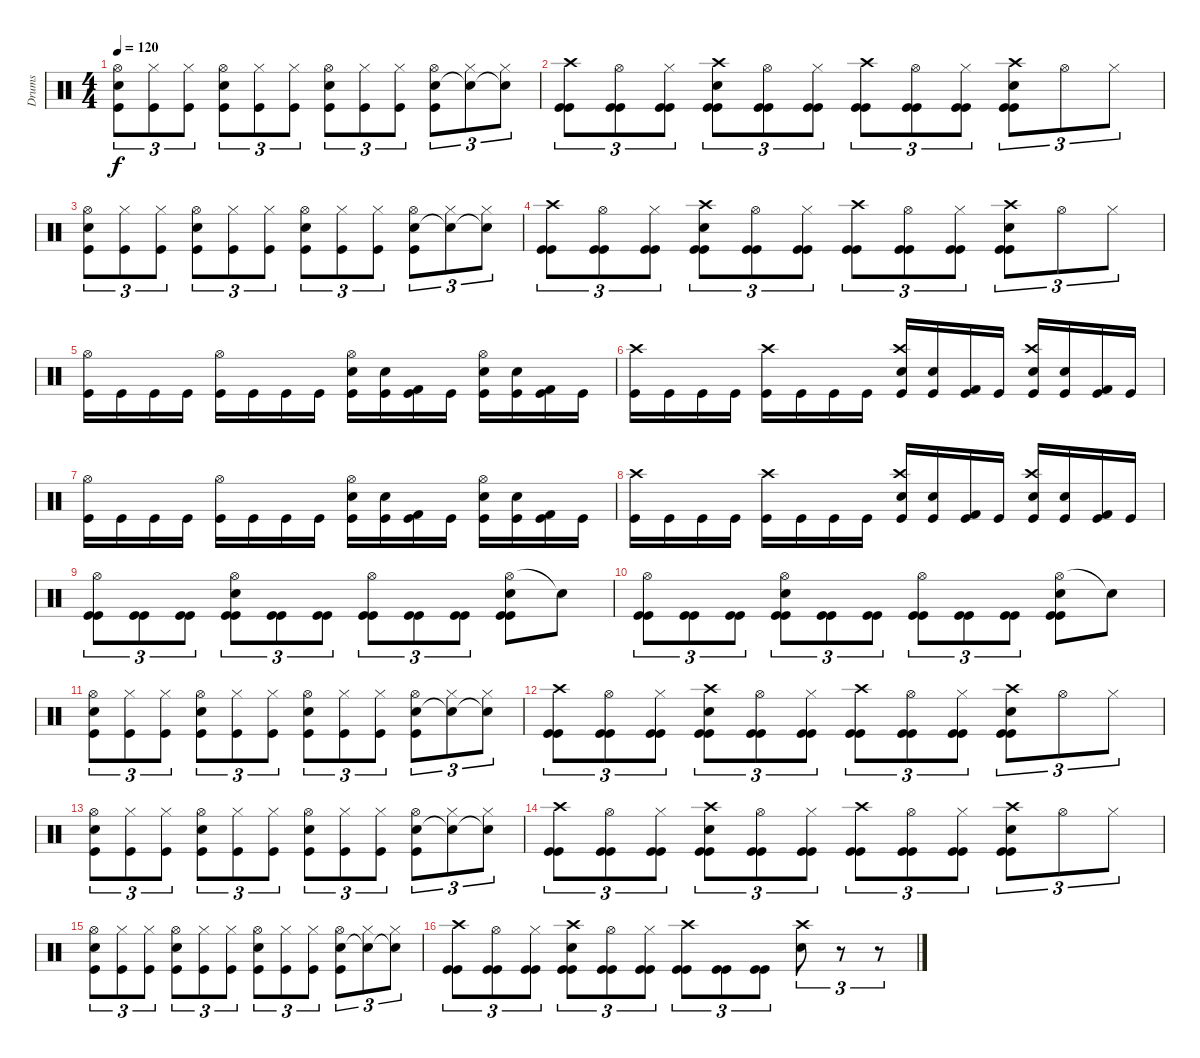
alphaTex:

\track ("Drums" "Drums") {instrument percussion}
\staff {score}
\articulation defaults
\ts (4 4)
\tempo 120
\clef neutral
\ks c
("Hi-Hat (open)" "Snare (hit) 2" "Kick (hit)").8{tu (3 2) dy f} ("Hi-Hat (closed)" "Kick (hit)").8{tu (3 2)} ("Hi-Hat (closed)" "Kick (hit)").8{tu (3 2)} ("Hi-Hat (open)" "Snare (hit) 2" "Kick (hit)").8{tu (3 2)} ("Hi-Hat (closed)" "Kick (hit)").8{tu (3 2)} ("Hi-Hat (closed)" "Kick (hit)").8{tu (3 2)} ("Hi-Hat (open)" "Snare (hit) 2" "Kick (hit)").8{tu (3 2)} ("Hi-Hat (closed)" "Kick (hit)").8{tu (3 2)} ("Hi-Hat (closed)" "Kick (hit)").8{tu (3 2)} ("Hi-Hat (open)" "Snare (hit) 2" "Kick (hit)").8{tu (3 2)} ("Hi-Hat (closed)" "Snare (hit)"{t}).8{tu (3 2)} ("Hi-Hat (closed)" "Snare (hit)"{t}).8{tu (3 2)} |
("Crash high (hit)" "Kick (hit)" "Kick (hit)").8{tu (3 2)} ("Hi-Hat (open)" "Kick (hit)" "Kick (hit)").8{tu (3 2)} ("Hi-Hat (closed)" "Kick (hit)" "Kick (hit)").8{tu (3 2)} ("Crash high (hit)" "Snare (hit) 2" "Kick (hit)" "Kick (hit)").8{tu (3 2)} ("Hi-Hat (open)" "Kick (hit)" "Kick (hit)").8{tu (3 2)} ("Hi-Hat (closed)" "Kick (hit)" "Kick (hit)").8{tu (3 2)} ("Crash high (hit)" "Kick (hit)" "Kick (hit)").8{tu (3 2)} ("Hi-Hat (open)" "Kick (hit)" "Kick (hit)").8{tu (3 2)} ("Hi-Hat (closed)" "Kick (hit)" "Kick (hit)").8{tu (3 2)} ("Crash high (hit)" "Snare (hit) 2" "Kick (hit)" "Kick (hit)").8{tu (3 2)} "Hi-Hat (open)".8{tu (3 2)} "Hi-Hat (closed)".8{tu (3 2)} |
("Hi-Hat (open)" "Snare (hit) 2" "Kick (hit)").8{tu (3 2)} ("Hi-Hat (closed)" "Kick (hit)").8{tu (3 2)} ("Hi-Hat (closed)" "Kick (hit)").8{tu (3 2)} ("Hi-Hat (open)" "Snare (hit) 2" "Kick (hit)").8{tu (3 2)} ("Hi-Hat (closed)" "Kick (hit)").8{tu (3 2)} ("Hi-Hat (closed)" "Kick (hit)").8{tu (3 2)} ("Hi-Hat (open)" "Snare (hit) 2" "Kick (hit)").8{tu (3 2)} ("Hi-Hat (closed)" "Kick (hit)").8{tu (3 2)} ("Hi-Hat (closed)" "Kick (hit)").8{tu (3 2)} ("Hi-Hat (open)" "Snare (hit) 2" "Kick (hit)").8{tu (3 2)} ("Hi-Hat (closed)" "Snare (hit)"{t}).8{tu (3 2)} ("Hi-Hat (closed)" "Snare (hit)"{t}).8{tu (3 2)} |
("Crash high (hit)" "Kick (hit)" "Kick (hit)").8{tu (3 2)} ("Hi-Hat (open)" "Kick (hit)" "Kick (hit)").8{tu (3 2)} ("Hi-Hat (closed)" "Kick (hit)" "Kick (hit)").8{tu (3 2)} ("Crash high (hit)" "Snare (hit) 2" "Kick (hit)" "Kick (hit)").8{tu (3 2)} ("Hi-Hat (open)" "Kick (hit)" "Kick (hit)").8{tu (3 2)} ("Hi-Hat (closed)" "Kick (hit)" "Kick (hit)").8{tu (3 2)} ("Crash high (hit)" "Kick (hit)" "Kick (hit)").8{tu (3 2)} ("Hi-Hat (open)" "Kick (hit)" "Kick (hit)").8{tu (3 2)} ("Hi-Hat (closed)" "Kick (hit)" "Kick (hit)").8{tu (3 2)} ("Crash high (hit)" "Snare (hit) 2" "Kick (hit)" "Kick (hit)").8{tu (3 2)} "Hi-Hat (open)".8{tu (3 2)} "Hi-Hat (closed)".8{tu (3 2)} |
("Hi-Hat (open)" "Kick (hit)").16 "Kick (hit)".16 "Kick (hit)".16 "Kick (hit)".16 ("Hi-Hat (open)" "Kick (hit)").16 "Kick (hit)".16 "Kick (hit)".16 "Kick (hit)".16 ("Hi-Hat (open)" "Electric Snare (hit)" "Kick (hit)").16 ("Snare (hit) 2" "Kick (hit)").16 ("Kick (hit) 2" "Kick (hit)").16 "Kick (hit)".16 ("Hi-Hat (open)" "Electric Snare (hit)" "Kick (hit)").16 ("Snare (hit) 2" "Kick (hit)").16 ("Kick (hit) 2" "Kick (hit)").16 "Kick (hit)".16 |
("Crash high (hit)" "Kick (hit)").16 "Kick (hit)".16 "Kick (hit)".16 "Kick (hit)".16 ("Crash high (hit)" "Kick (hit)").16 "Kick (hit)".16 "Kick (hit)".16 "Kick (hit)".16 ("Crash high (hit)" "Electric Snare (hit)" "Kick (hit)").16 ("Snare (hit) 2" "Kick (hit)").16 ("Kick (hit) 2" "Kick (hit)").16 "Kick (hit)".16 ("Crash high (hit)" "Electric Snare (hit)" "Kick (hit)").16 ("Snare (hit) 2" "Kick (hit)").16 ("Kick (hit) 2" "Kick (hit)").16 "Kick (hit)".16 |
("Hi-Hat (open)" "Kick (hit)").16 "Kick (hit)".16 "Kick (hit)".16 "Kick (hit)".16 ("Hi-Hat (open)" "Kick (hit)").16 "Kick (hit)".16 "Kick (hit)".16 "Kick (hit)".16 ("Hi-Hat (open)" "Electric Snare (hit)" "Kick (hit)").16 ("Snare (hit) 2" "Kick (hit)").16 ("Kick (hit) 2" "Kick (hit)").16 "Kick (hit)".16 ("Hi-Hat (open)" "Electric Snare (hit)" "Kick (hit)").16 ("Snare (hit) 2" "Kick (hit)").16 ("Kick (hit) 2" "Kick (hit)").16 "Kick (hit)".16 |
("Crash high (hit)" "Kick (hit)").16 "Kick (hit)".16 "Kick (hit)".16 "Kick (hit)".16 ("Crash high (hit)" "Kick (hit)").16 "Kick (hit)".16 "Kick (hit)".16 "Kick (hit)".16 ("Crash high (hit)" "Electric Snare (hit)" "Kick (hit)").16 ("Snare (hit) 2" "Kick (hit)").16 ("Kick (hit) 2" "Kick (hit)").16 "Kick (hit)".16 ("Crash high (hit)" "Electric Snare (hit)" "Kick (hit)").16 ("Snare (hit) 2" "Kick (hit)").16 ("Kick (hit) 2" "Kick (hit)").16 "Kick (hit)".16 |
("Hi-Hat (open)" "Kick (hit)" "Kick (hit)").8{tu (3 2)} ("Kick (hit)" "Kick (hit)").8{tu (3 2)} ("Kick (hit)" "Kick (hit)").8{tu (3 2)} ("Hi-Hat (open)" "Snare (hit) 2" "Kick (hit)" "Kick (hit)").8{tu (3 2)} ("Kick (hit)" "Kick (hit)").8{tu (3 2)} ("Kick (hit)" "Kick (hit)").8{tu (3 2)} ("Hi-Hat (open)" "Kick (hit)" "Kick (hit)").8{tu (3 2)} ("Kick (hit)" "Kick (hit)").8{tu (3 2)} ("Kick (hit)" "Kick (hit)").8{tu (3 2)} ("Hi-Hat (open)" "Snare (hit) 2" "Kick (hit)" "Kick (hit)").8 "Snare (hit)"{t}.8 |
("Hi-Hat (open)" "Kick (hit)" "Kick (hit)").8{tu (3 2)} ("Kick (hit)" "Kick (hit)").8{tu (3 2)} ("Kick (hit)" "Kick (hit)").8{tu (3 2)} ("Hi-Hat (open)" "Snare (hit) 2" "Kick (hit)" "Kick (hit)").8{tu (3 2)} ("Kick (hit)" "Kick (hit)").8{tu (3 2)} ("Kick (hit)" "Kick (hit)").8{tu (3 2)} ("Hi-Hat (open)" "Kick (hit)" "Kick (hit)").8{tu (3 2)} ("Kick (hit)" "Kick (hit)").8{tu (3 2)} ("Kick (hit)" "Kick (hit)").8{tu (3 2)} ("Hi-Hat (open)" "Snare (hit) 2" "Kick (hit)" "Kick (hit)").8 "Snare (hit)"{t}.8 |
("Hi-Hat (open)" "Snare (hit) 2" "Kick (hit)").8{tu (3 2)} ("Hi-Hat (closed)" "Kick (hit)").8{tu (3 2)} ("Hi-Hat (closed)" "Kick (hit)").8{tu (3 2)} ("Hi-Hat (open)" "Snare (hit) 2" "Kick (hit)").8{tu (3 2)} ("Hi-Hat (closed)" "Kick (hit)").8{tu (3 2)} ("Hi-Hat (closed)" "Kick (hit)").8{tu (3 2)} ("Hi-Hat (open)" "Snare (hit) 2" "Kick (hit)").8{tu (3 2)} ("Hi-Hat (closed)" "Kick (hit)").8{tu (3 2)} ("Hi-Hat (closed)" "Kick (hit)").8{tu (3 2)} ("Hi-Hat (open)" "Snare (hit) 2" "Kick (hit)").8{tu (3 2)} ("Hi-Hat (closed)" "Snare (hit)"{t}).8{tu (3 2)} ("Hi-Hat (closed)" "Snare (hit)"{t}).8{tu (3 2)} |
("Crash high (hit)" "Kick (hit)" "Kick (hit)").8{tu (3 2)} ("Hi-Hat (open)" "Kick (hit)" "Kick (hit)").8{tu (3 2)} ("Hi-Hat (closed)" "Kick (hit)" "Kick (hit)").8{tu (3 2)} ("Crash high (hit)" "Snare (hit) 2" "Kick (hit)" "Kick (hit)").8{tu (3 2)} ("Hi-Hat (open)" "Kick (hit)" "Kick (hit)").8{tu (3 2)} ("Hi-Hat (closed)" "Kick (hit)" "Kick (hit)").8{tu (3 2)} ("Crash high (hit)" "Kick (hit)" "Kick (hit)").8{tu (3 2)} ("Hi-Hat (open)" "Kick (hit)" "Kick (hit)").8{tu (3 2)} ("Hi-Hat (closed)" "Kick (hit)" "Kick (hit)").8{tu (3 2)} ("Crash high (hit)" "Snare (hit) 2" "Kick (hit)" "Kick (hit)").8{tu (3 2)} "Hi-Hat (open)".8{tu (3 2)} "Hi-Hat (closed)".8{tu (3 2)} |
("Hi-Hat (open)" "Snare (hit) 2" "Kick (hit)").8{tu (3 2)} ("Hi-Hat (closed)" "Kick (hit)").8{tu (3 2)} ("Hi-Hat (closed)" "Kick (hit)").8{tu (3 2)} ("Hi-Hat (open)" "Snare (hit) 2" "Kick (hit)").8{tu (3 2)} ("Hi-Hat (closed)" "Kick (hit)").8{tu (3 2)} ("Hi-Hat (closed)" "Kick (hit)").8{tu (3 2)} ("Hi-Hat (open)" "Snare (hit) 2" "Kick (hit)").8{tu (3 2)} ("Hi-Hat (closed)" "Kick (hit)").8{tu (3 2)} ("Hi-Hat (closed)" "Kick (hit)").8{tu (3 2)} ("Hi-Hat (open)" "Snare (hit) 2" "Kick (hit)").8{tu (3 2)} ("Hi-Hat (closed)" "Snare (hit)"{t}).8{tu (3 2)} ("Hi-Hat (closed)" "Snare (hit)"{t}).8{tu (3 2)} |
("Crash high (hit)" "Kick (hit)" "Kick (hit)").8{tu (3 2)} ("Hi-Hat (open)" "Kick (hit)" "Kick (hit)").8{tu (3 2)} ("Hi-Hat (closed)" "Kick (hit)" "Kick (hit)").8{tu (3 2)} ("Crash high (hit)" "Snare (hit) 2" "Kick (hit)" "Kick (hit)").8{tu (3 2)} ("Hi-Hat (open)" "Kick (hit)" "Kick (hit)").8{tu (3 2)} ("Hi-Hat (closed)" "Kick (hit)" "Kick (hit)").8{tu (3 2)} ("Crash high (hit)" "Kick (hit)" "Kick (hit)").8{tu (3 2)} ("Hi-Hat (open)" "Kick (hit)" "Kick (hit)").8{tu (3 2)} ("Hi-Hat (closed)" "Kick (hit)" "Kick (hit)").8{tu (3 2)} ("Crash high (hit)" "Snare (hit) 2" "Kick (hit)" "Kick (hit)").8{tu (3 2)} "Hi-Hat (open)".8{tu (3 2)} "Hi-Hat (closed)".8{tu (3 2)} |
("Hi-Hat (open)" "Snare (hit) 2" "Kick (hit)").8{tu (3 2)} ("Hi-Hat (closed)" "Kick (hit)").8{tu (3 2)} ("Hi-Hat (closed)" "Kick (hit)").8{tu (3 2)} ("Hi-Hat (open)" "Snare (hit) 2" "Kick (hit)").8{tu (3 2)} ("Hi-Hat (closed)" "Kick (hit)").8{tu (3 2)} ("Hi-Hat (closed)" "Kick (hit)").8{tu (3 2)} ("Hi-Hat (open)" "Snare (hit) 2" "Kick (hit)").8{tu (3 2)} ("Hi-Hat (closed)" "Kick (hit)").8{tu (3 2)} ("Hi-Hat (closed)" "Kick (hit)").8{tu (3 2)} ("Hi-Hat (open)" "Snare (hit) 2" "Kick (hit)").8{tu (3 2)} ("Hi-Hat (closed)" "Snare (hit)"{t}).8{tu (3 2)} ("Hi-Hat (closed)" "Snare (hit)"{t}).8{tu (3 2)} |
("Crash high (hit)" "Kick (hit)" "Kick (hit)").8{tu (3 2)} ("Hi-Hat (open)" "Kick (hit)" "Kick (hit)").8{tu (3 2)} ("Hi-Hat (closed)" "Kick (hit)" "Kick (hit)").8{tu (3 2)} ("Crash high (hit)" "Snare (hit) 2" "Kick (hit)" "Kick (hit)").8{tu (3 2)} ("Hi-Hat (open)" "Kick (hit)" "Kick (hit)").8{tu (3 2)} ("Hi-Hat (closed)" "Kick (hit)" "Kick (hit)").8{tu (3 2)} ("Crash high (hit)" "Kick (hit)" "Kick (hit)").8{tu (3 2)} ("Kick (hit)" "Kick (hit)").8{tu (3 2)} ("Kick (hit)" "Kick (hit)").8{tu (3 2)} ("Crash high (hit)" "Snare (hit) 2").8{tu (3 2)} r.8{tu (3 2)} r.8{tu (3 2)}
